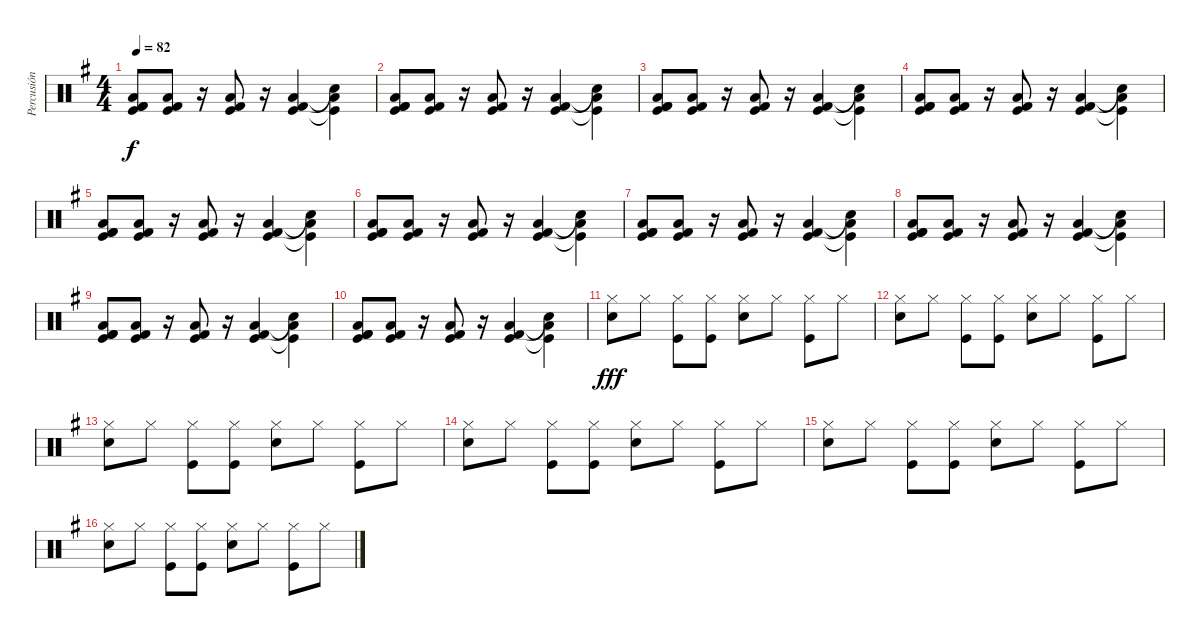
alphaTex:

\track ("Percusión" "Percusión") {instrument percussion}
\staff {score}
\articulation defaults
\ts (4 4)
\tempo 82
\clef neutral
\ks eminor
("Low Floor Tom (hit)" "Kick (hit) 2" "Kick (hit)" "Kick (hit) 2").8{dy f} ("Low Floor Tom (hit)" "Kick (hit) 2" "Kick (hit)").8 r.16 ("Low Floor Tom (hit)" "Kick (hit) 2" "Kick (hit)").8 r.16 ("Low Floor Tom (hit)" "Kick (hit) 2" "Kick (hit)").4 ("Low Floor Tom (hit)"{t} "Hand Clap (hit)"{t} "Kick (hit)"{t}).4 |
("Low Floor Tom (hit)" "Kick (hit) 2" "Kick (hit)" "Kick (hit) 2").8 ("Low Floor Tom (hit)" "Kick (hit) 2" "Kick (hit)").8 r.16 ("Low Floor Tom (hit)" "Kick (hit) 2" "Kick (hit)").8 r.16 ("Low Floor Tom (hit)" "Kick (hit) 2" "Kick (hit)").4 ("Low Floor Tom (hit)"{t} "Hand Clap (hit)"{t} "Kick (hit)"{t}).4 |
("Low Floor Tom (hit)" "Kick (hit) 2" "Kick (hit)" "Kick (hit) 2").8 ("Low Floor Tom (hit)" "Kick (hit) 2" "Kick (hit)").8 r.16 ("Low Floor Tom (hit)" "Kick (hit) 2" "Kick (hit)").8 r.16 ("Low Floor Tom (hit)" "Kick (hit) 2" "Kick (hit)").4 ("Low Floor Tom (hit)"{t} "Hand Clap (hit)"{t} "Kick (hit)"{t}).4 |
("Low Floor Tom (hit)" "Kick (hit) 2" "Kick (hit)" "Kick (hit) 2").8 ("Low Floor Tom (hit)" "Kick (hit) 2" "Kick (hit)").8 r.16 ("Low Floor Tom (hit)" "Kick (hit) 2" "Kick (hit)").8 r.16 ("Low Floor Tom (hit)" "Kick (hit) 2" "Kick (hit)").4 ("Low Floor Tom (hit)"{t} "Hand Clap (hit)"{t} "Kick (hit)"{t}).4 |
("Low Floor Tom (hit)" "Kick (hit) 2" "Kick (hit)" "Kick (hit) 2").8 ("Low Floor Tom (hit)" "Kick (hit) 2" "Kick (hit)").8 r.16 ("Low Floor Tom (hit)" "Kick (hit) 2" "Kick (hit)").8 r.16 ("Low Floor Tom (hit)" "Kick (hit) 2" "Kick (hit)").4 ("Low Floor Tom (hit)"{t} "Hand Clap (hit)"{t} "Kick (hit)"{t}).4 |
("Low Floor Tom (hit)" "Kick (hit) 2" "Kick (hit)" "Kick (hit) 2").8 ("Low Floor Tom (hit)" "Kick (hit) 2" "Kick (hit)").8 r.16 ("Low Floor Tom (hit)" "Kick (hit) 2" "Kick (hit)").8 r.16 ("Low Floor Tom (hit)" "Kick (hit) 2" "Kick (hit)").4 ("Low Floor Tom (hit)"{t} "Hand Clap (hit)"{t} "Kick (hit)"{t}).4 |
("Low Floor Tom (hit)" "Kick (hit) 2" "Kick (hit)" "Kick (hit) 2").8 ("Low Floor Tom (hit)" "Kick (hit) 2" "Kick (hit)").8 r.16 ("Low Floor Tom (hit)" "Kick (hit) 2" "Kick (hit)").8 r.16 ("Low Floor Tom (hit)" "Kick (hit) 2" "Kick (hit)").4 ("Low Floor Tom (hit)"{t} "Hand Clap (hit)"{t} "Kick (hit)"{t}).4 |
("Low Floor Tom (hit)" "Kick (hit) 2" "Kick (hit)" "Kick (hit) 2").8 ("Low Floor Tom (hit)" "Kick (hit) 2" "Kick (hit)").8 r.16 ("Low Floor Tom (hit)" "Kick (hit) 2" "Kick (hit)").8 r.16 ("Low Floor Tom (hit)" "Kick (hit) 2" "Kick (hit)").4 ("Low Floor Tom (hit)"{t} "Hand Clap (hit)"{t} "Kick (hit)"{t}).4 |
("Low Floor Tom (hit)" "Kick (hit) 2" "Kick (hit)" "Kick (hit) 2").8 ("Low Floor Tom (hit)" "Kick (hit) 2" "Kick (hit)").8 r.16 ("Low Floor Tom (hit)" "Kick (hit) 2" "Kick (hit)").8 r.16 ("Low Floor Tom (hit)" "Kick (hit) 2" "Kick (hit)").4 ("Low Floor Tom (hit)"{t} "Hand Clap (hit)"{t} "Kick (hit)"{t}).4 |
("Low Floor Tom (hit)" "Kick (hit) 2" "Kick (hit)" "Kick (hit) 2").8 ("Low Floor Tom (hit)" "Kick (hit) 2" "Kick (hit)").8 r.16 ("Low Floor Tom (hit)" "Kick (hit) 2" "Kick (hit)").8 r.16 ("Low Floor Tom (hit)" "Kick (hit) 2" "Kick (hit)").4 ("Low Floor Tom (hit)"{t} "Hand Clap (hit)"{t} "Kick (hit)"{t}).4 |
("Hi-Hat (closed)" "Snare (hit) 2").8{dy fff} "Hi-Hat (closed)".8 ("Hi-Hat (closed)" "Kick (hit)").8 ("Hi-Hat (closed)" "Kick (hit)").8 ("Hi-Hat (closed)" "Snare (hit) 2").8 "Hi-Hat (closed)".8 ("Hi-Hat (closed)" "Kick (hit)").8 "Hi-Hat (closed)".8 |
("Hi-Hat (closed)" "Snare (hit) 2").8 "Hi-Hat (closed)".8 ("Hi-Hat (closed)" "Kick (hit)").8 ("Hi-Hat (closed)" "Kick (hit)").8 ("Hi-Hat (closed)" "Snare (hit) 2").8 "Hi-Hat (closed)".8 ("Hi-Hat (closed)" "Kick (hit)").8 "Hi-Hat (closed)".8 |
("Hi-Hat (closed)" "Snare (hit) 2").8 "Hi-Hat (closed)".8 ("Hi-Hat (closed)" "Kick (hit)").8 ("Hi-Hat (closed)" "Kick (hit)").8 ("Hi-Hat (closed)" "Snare (hit) 2").8 "Hi-Hat (closed)".8 ("Hi-Hat (closed)" "Kick (hit)").8 "Hi-Hat (closed)".8 |
("Hi-Hat (closed)" "Snare (hit) 2").8 "Hi-Hat (closed)".8 ("Hi-Hat (closed)" "Kick (hit)").8 ("Hi-Hat (closed)" "Kick (hit)").8 ("Hi-Hat (closed)" "Snare (hit) 2").8 "Hi-Hat (closed)".8 ("Hi-Hat (closed)" "Kick (hit)").8 "Hi-Hat (closed)".8 |
("Hi-Hat (closed)" "Snare (hit) 2").8 "Hi-Hat (closed)".8 ("Hi-Hat (closed)" "Kick (hit)").8 ("Hi-Hat (closed)" "Kick (hit)").8 ("Hi-Hat (closed)" "Snare (hit) 2").8 "Hi-Hat (closed)".8 ("Hi-Hat (closed)" "Kick (hit)").8 "Hi-Hat (closed)".8 |
("Hi-Hat (closed)" "Snare (hit) 2").8 "Hi-Hat (closed)".8 ("Hi-Hat (closed)" "Kick (hit)").8 ("Hi-Hat (closed)" "Kick (hit)").8 ("Hi-Hat (closed)" "Snare (hit) 2").8 "Hi-Hat (closed)".8 ("Hi-Hat (closed)" "Kick (hit)").8 "Hi-Hat (closed)".8
